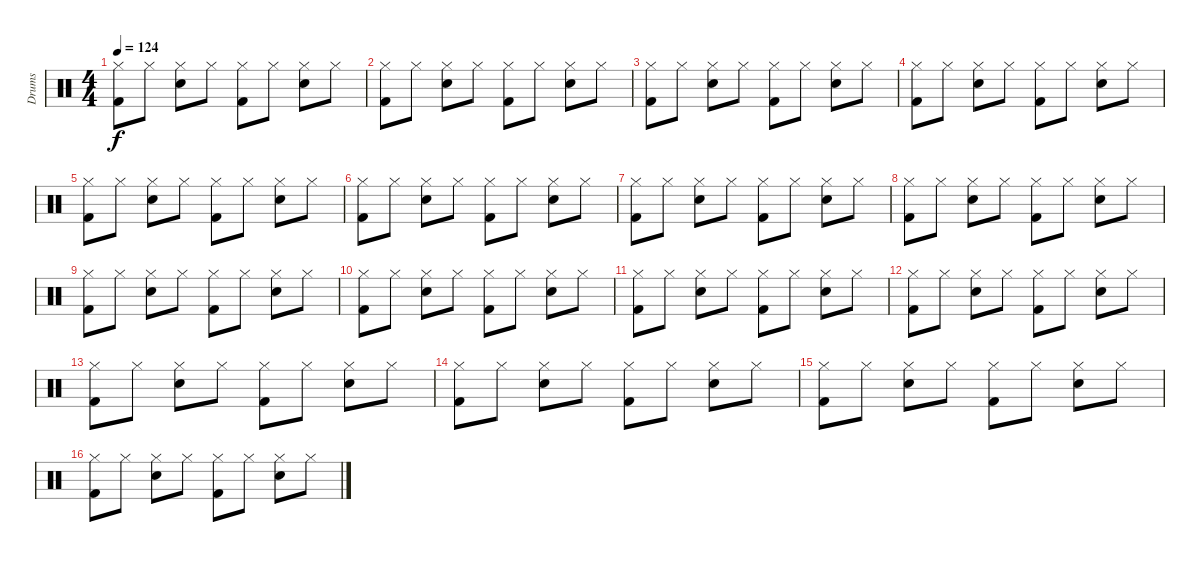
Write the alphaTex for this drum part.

\track ("Drums" "Drums") {instrument percussion}
\staff {score}
\articulation defaults
\ts (4 4)
\tempo 124
\clef neutral
\ks c
("Kick (hit) 2" "Hi-Hat (closed)").8{dy f} "Hi-Hat (closed)".8 ("Electric Snare (hit)" "Hi-Hat (closed)").8 "Hi-Hat (closed)".8 ("Kick (hit) 2" "Hi-Hat (closed)").8 "Hi-Hat (closed)".8 ("Electric Snare (hit)" "Hi-Hat (closed)").8 "Hi-Hat (closed)".8 |
("Kick (hit) 2" "Hi-Hat (closed)").8 "Hi-Hat (closed)".8 ("Electric Snare (hit)" "Hi-Hat (closed)").8 "Hi-Hat (closed)".8 ("Kick (hit) 2" "Hi-Hat (closed)").8 "Hi-Hat (closed)".8 ("Electric Snare (hit)" "Hi-Hat (closed)").8 "Hi-Hat (closed)".8 |
("Kick (hit) 2" "Hi-Hat (closed)").8 "Hi-Hat (closed)".8 ("Electric Snare (hit)" "Hi-Hat (closed)").8 "Hi-Hat (closed)".8 ("Kick (hit) 2" "Hi-Hat (closed)").8 "Hi-Hat (closed)".8 ("Electric Snare (hit)" "Hi-Hat (closed)").8 "Hi-Hat (closed)".8 |
("Kick (hit) 2" "Hi-Hat (closed)").8 "Hi-Hat (closed)".8 ("Electric Snare (hit)" "Hi-Hat (closed)").8 "Hi-Hat (closed)".8 ("Kick (hit) 2" "Hi-Hat (closed)").8 "Hi-Hat (closed)".8 ("Electric Snare (hit)" "Hi-Hat (closed)").8 "Hi-Hat (closed)".8 |
("Kick (hit) 2" "Hi-Hat (closed)").8 "Hi-Hat (closed)".8 ("Electric Snare (hit)" "Hi-Hat (closed)").8 "Hi-Hat (closed)".8 ("Kick (hit) 2" "Hi-Hat (closed)").8 "Hi-Hat (closed)".8 ("Electric Snare (hit)" "Hi-Hat (closed)").8 "Hi-Hat (closed)".8 |
("Kick (hit) 2" "Hi-Hat (closed)").8 "Hi-Hat (closed)".8 ("Electric Snare (hit)" "Hi-Hat (closed)").8 "Hi-Hat (closed)".8 ("Kick (hit) 2" "Hi-Hat (closed)").8 "Hi-Hat (closed)".8 ("Electric Snare (hit)" "Hi-Hat (closed)").8 "Hi-Hat (closed)".8 |
("Kick (hit) 2" "Hi-Hat (closed)").8 "Hi-Hat (closed)".8 ("Electric Snare (hit)" "Hi-Hat (closed)").8 "Hi-Hat (closed)".8 ("Kick (hit) 2" "Hi-Hat (closed)").8 "Hi-Hat (closed)".8 ("Electric Snare (hit)" "Hi-Hat (closed)").8 "Hi-Hat (closed)".8 |
("Kick (hit) 2" "Hi-Hat (closed)").8 "Hi-Hat (closed)".8 ("Electric Snare (hit)" "Hi-Hat (closed)").8 "Hi-Hat (closed)".8 ("Kick (hit) 2" "Hi-Hat (closed)").8 "Hi-Hat (closed)".8 ("Electric Snare (hit)" "Hi-Hat (closed)").8 "Hi-Hat (closed)".8 |
("Kick (hit) 2" "Hi-Hat (closed)").8 "Hi-Hat (closed)".8 ("Electric Snare (hit)" "Hi-Hat (closed)").8 "Hi-Hat (closed)".8 ("Kick (hit) 2" "Hi-Hat (closed)").8 "Hi-Hat (closed)".8 ("Electric Snare (hit)" "Hi-Hat (closed)").8 "Hi-Hat (closed)".8 |
("Kick (hit) 2" "Hi-Hat (closed)").8 "Hi-Hat (closed)".8 ("Electric Snare (hit)" "Hi-Hat (closed)").8 "Hi-Hat (closed)".8 ("Kick (hit) 2" "Hi-Hat (closed)").8 "Hi-Hat (closed)".8 ("Electric Snare (hit)" "Hi-Hat (closed)").8 "Hi-Hat (closed)".8 |
("Kick (hit) 2" "Hi-Hat (closed)").8 "Hi-Hat (closed)".8 ("Electric Snare (hit)" "Hi-Hat (closed)").8 "Hi-Hat (closed)".8 ("Kick (hit) 2" "Hi-Hat (closed)").8 "Hi-Hat (closed)".8 ("Electric Snare (hit)" "Hi-Hat (closed)").8 "Hi-Hat (closed)".8 |
("Kick (hit) 2" "Hi-Hat (closed)").8 "Hi-Hat (closed)".8 ("Electric Snare (hit)" "Hi-Hat (closed)").8 "Hi-Hat (closed)".8 ("Kick (hit) 2" "Hi-Hat (closed)").8 "Hi-Hat (closed)".8 ("Electric Snare (hit)" "Hi-Hat (closed)").8 "Hi-Hat (closed)".8 |
("Kick (hit) 2" "Hi-Hat (closed)").8 "Hi-Hat (closed)".8 ("Electric Snare (hit)" "Hi-Hat (closed)").8 "Hi-Hat (closed)".8 ("Kick (hit) 2" "Hi-Hat (closed)").8 "Hi-Hat (closed)".8 ("Electric Snare (hit)" "Hi-Hat (closed)").8 "Hi-Hat (closed)".8 |
("Kick (hit) 2" "Hi-Hat (closed)").8 "Hi-Hat (closed)".8 ("Electric Snare (hit)" "Hi-Hat (closed)").8 "Hi-Hat (closed)".8 ("Kick (hit) 2" "Hi-Hat (closed)").8 "Hi-Hat (closed)".8 ("Electric Snare (hit)" "Hi-Hat (closed)").8 "Hi-Hat (closed)".8 |
("Kick (hit) 2" "Hi-Hat (closed)").8 "Hi-Hat (closed)".8 ("Electric Snare (hit)" "Hi-Hat (closed)").8 "Hi-Hat (closed)".8 ("Kick (hit) 2" "Hi-Hat (closed)").8 "Hi-Hat (closed)".8 ("Electric Snare (hit)" "Hi-Hat (closed)").8 "Hi-Hat (closed)".8 |
("Kick (hit) 2" "Hi-Hat (closed)").8 "Hi-Hat (closed)".8 ("Electric Snare (hit)" "Hi-Hat (closed)").8 "Hi-Hat (closed)".8 ("Kick (hit) 2" "Hi-Hat (closed)").8 "Hi-Hat (closed)".8 ("Electric Snare (hit)" "Hi-Hat (closed)").8 "Hi-Hat (closed)".8
